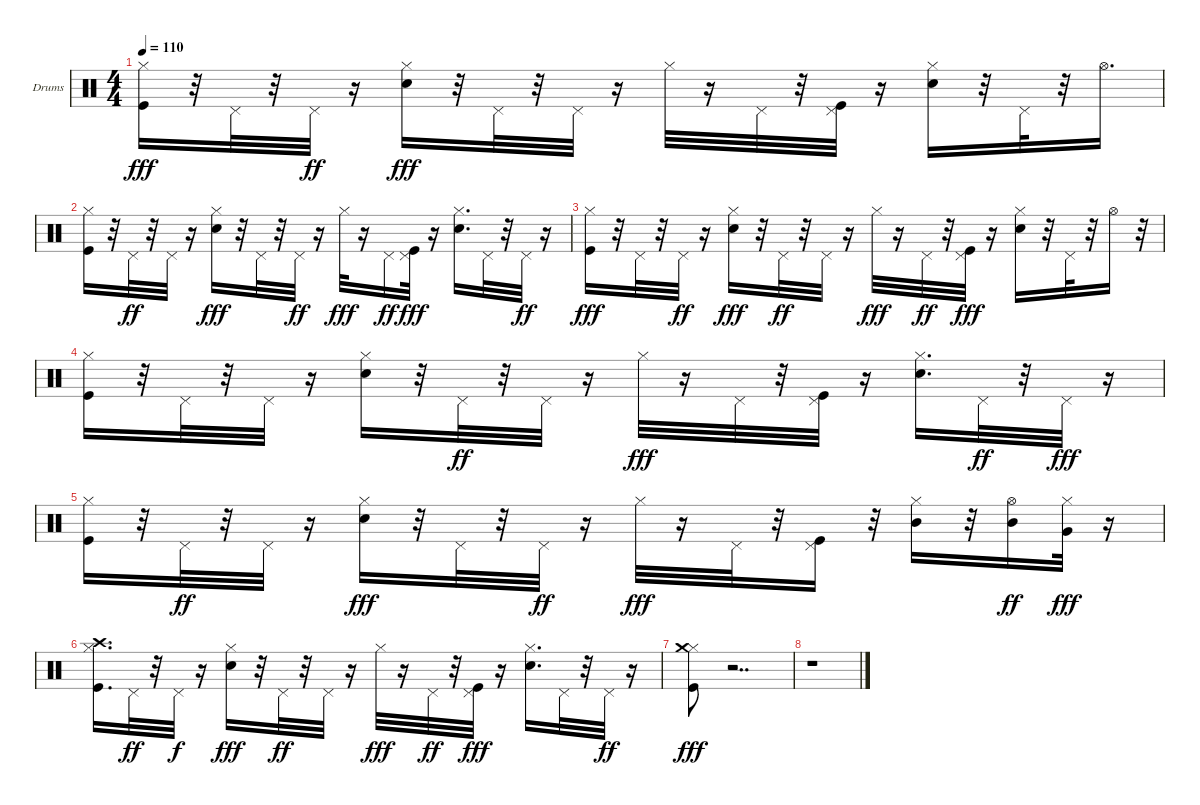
\defaultSystemsLayout 4
\bracketExtendMode groupsimilarinstruments
\firstSystemTrackNameOrientation horizontal
\otherSystemsTrackNameOrientation horizontal
\track ("Drumkit" "Drums") {instrument percussion}
\staff {score}
\articulation defaults
\ts (4 4)
\tempo 110
\clef neutral
\ks c
("Kick (hit)" "Hi-Hat (closed)").16{dy fff} r.32 "Pedal Hi-Hat (hit)".32 r.32 "Pedal Hi-Hat (hit)".32{dy ff} r.16 ("Snare (hit) 2" "Hi-Hat (closed)").16{dy fff} r.32 "Pedal Hi-Hat (hit)".32 r.32 "Pedal Hi-Hat (hit)".32 r.16 "Hi-Hat (closed)".32 r.16 "Pedal Hi-Hat (hit)".32 r.32 ("Kick (hit)" "Pedal Hi-Hat (hit)").32 r.16 ("Snare (hit) 2" "Hi-Hat (closed)").16 r.32 "Pedal Hi-Hat (hit)".32 r.32 "Hi-Hat (open)".16{d} |
("Kick (hit)" "Hi-Hat (closed)").16 r.32 "Pedal Hi-Hat (hit)".32{dy ff} r.32 "Pedal Hi-Hat (hit)".32 r.16 ("Snare (hit) 2" "Hi-Hat (closed)").16{dy fff} r.32 "Pedal Hi-Hat (hit)".32 r.32 "Pedal Hi-Hat (hit)".32{dy ff} r.16 "Hi-Hat (closed)".32{dy fff} r.16 "Pedal Hi-Hat (hit)".16{dy ff} ("Kick (hit)" "Pedal Hi-Hat (hit)").32{dy fff} r.16 ("Snare (hit) 2" "Hi-Hat (closed)").16{d} "Pedal Hi-Hat (hit)".32 r.32 "Pedal Hi-Hat (hit)".32{dy ff} r.16 |
("Kick (hit)" "Hi-Hat (closed)").16{dy fff} r.32 "Pedal Hi-Hat (hit)".32 r.32 "Pedal Hi-Hat (hit)".32{dy ff} r.16 ("Snare (hit) 2" "Hi-Hat (closed)").16{dy fff} r.32 "Pedal Hi-Hat (hit)".32{dy ff} r.32 "Pedal Hi-Hat (hit)".32 r.16 "Hi-Hat (closed)".32{dy fff} r.16 "Pedal Hi-Hat (hit)".32{dy ff} r.32 ("Kick (hit)" "Pedal Hi-Hat (hit)").32{dy fff} r.16 ("Snare (hit) 2" "Hi-Hat (closed)").16 r.32 "Pedal Hi-Hat (hit)".32 r.32 "Hi-Hat (open)".16 r.32 |
("Kick (hit)" "Hi-Hat (closed)").16 r.32 "Pedal Hi-Hat (hit)".32 r.32 "Pedal Hi-Hat (hit)".32 r.16 ("Snare (hit) 2" "Hi-Hat (closed)").16 r.32 "Pedal Hi-Hat (hit)".32{dy ff} r.32 "Pedal Hi-Hat (hit)".32 r.16 "Hi-Hat (closed)".32{dy fff} r.16 "Pedal Hi-Hat (hit)".32 r.32 ("Kick (hit)" "Pedal Hi-Hat (hit)").32 r.16 ("Snare (hit) 2" "Hi-Hat (closed)").16{d} "Pedal Hi-Hat (hit)".32{dy ff} r.32 "Pedal Hi-Hat (hit)".32{dy fff} r.16 |
("Kick (hit)" "Hi-Hat (closed)").16 r.32 "Pedal Hi-Hat (hit)".32{dy ff} r.32 "Pedal Hi-Hat (hit)".32 r.16 ("Snare (hit) 2" "Hi-Hat (closed)").16{dy fff} r.32 "Pedal Hi-Hat (hit)".32 r.32 "Pedal Hi-Hat (hit)".32{dy ff} r.16 "Hi-Hat (closed)".32{dy fff} r.16 "Pedal Hi-Hat (hit)".32 r.32 ("Kick (hit)" "Pedal Hi-Hat (hit)").16 r.32 ("Mid Tom (hit)" "Hi-Hat (closed)").16 r.32 ("Mid Tom (hit)" "Hi-Hat (open)").16{dy ff} ("Very Low Tom (hit)" "Hi-Hat (closed)").32{dy fff} r.16 |
("Kick (hit)" "Crash high (hit)" "Hi-Hat (closed)").16{d} "Pedal Hi-Hat (hit)".32{dy ff} r.32 "Pedal Hi-Hat (hit)".32{dy f} r.16 ("Snare (hit) 2" "Hi-Hat (closed)").16{dy fff} r.32 "Pedal Hi-Hat (hit)".32{dy ff} r.32 "Pedal Hi-Hat (hit)".32 r.16 "Hi-Hat (closed)".32{dy fff} r.16 "Pedal Hi-Hat (hit)".32{dy ff} r.32 ("Kick (hit)" "Pedal Hi-Hat (hit)").32{dy fff} r.16 ("Snare (hit) 2" "Hi-Hat (closed)").16{d} "Pedal Hi-Hat (hit)".32 r.32 "Pedal Hi-Hat (hit)".32{dy ff} r.16 |
("Kick (hit)" "Hi-Hat (closed)" "Crash medium (hit)").8{dy fff} r.2{dd} |
r.1
